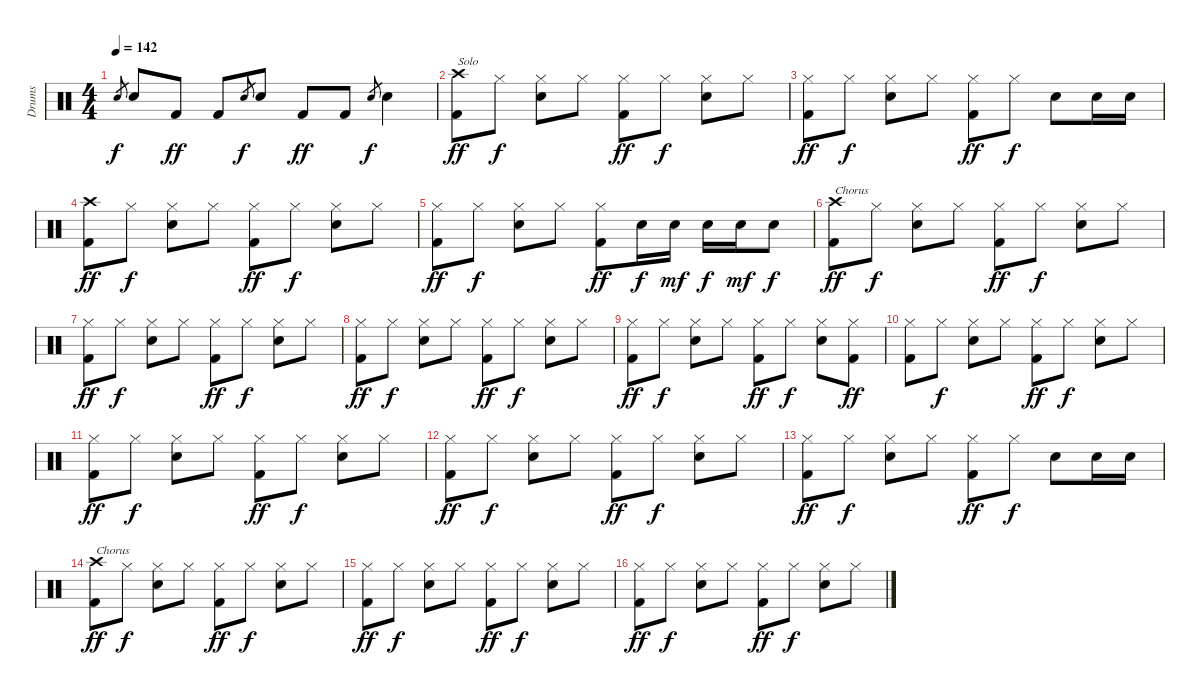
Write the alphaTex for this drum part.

\track ("Drums" "Drums") {instrument percussion}
\staff {score}
\articulation defaults
\ts (4 4)
\tempo 142
\clef neutral
\ks c "Snare (hit) 2".8{gr dy f} "Snare (hit) 2".8 "Kick (hit) 2".8{dy ff} "Kick (hit) 2".8 "Snare (hit) 2".8{gr dy f} "Snare (hit) 2".8 "Kick (hit) 2".8{dy ff} "Kick (hit) 2".8 "Snare (hit) 2".8{gr dy f} "Snare (hit) 2".4
|
("Crash high (hit)" "Kick (hit) 2").8{txt "Solo" dy ff} "Hi-Hat (closed)".8{dy f} ("Hi-Hat (closed)" "Snare (hit) 2").8 "Hi-Hat (closed)".8 ("Hi-Hat (closed)" "Kick (hit) 2").8{dy ff} "Hi-Hat (closed)".8{dy f} ("Hi-Hat (closed)" "Snare (hit) 2").8 "Hi-Hat (closed)".8 |
("Hi-Hat (closed)" "Kick (hit) 2").8{dy ff} "Hi-Hat (closed)".8{dy f} ("Hi-Hat (closed)" "Snare (hit) 2").8 "Hi-Hat (closed)".8 ("Hi-Hat (closed)" "Kick (hit) 2").8{dy ff} "Hi-Hat (closed)".8{dy f} "Snare (hit) 2".8 "Snare (hit) 2".16 "Snare (hit) 2".16 |
("Crash high (hit)" "Kick (hit) 2").8{dy ff} "Hi-Hat (closed)".8{dy f} ("Hi-Hat (closed)" "Snare (hit) 2").8 "Hi-Hat (closed)".8 ("Hi-Hat (closed)" "Kick (hit) 2").8{dy ff} "Hi-Hat (closed)".8{dy f} ("Hi-Hat (closed)" "Snare (hit) 2").8 "Hi-Hat (closed)".8 |
("Hi-Hat (closed)" "Kick (hit) 2").8{dy ff} "Hi-Hat (closed)".8{dy f} ("Hi-Hat (closed)" "Snare (hit) 2").8 "Hi-Hat (closed)".8 ("Hi-Hat (closed)" "Kick (hit) 2").8{dy ff} "Snare (hit) 2".16{dy f} "Snare (hit) 2".16{dy mf} "Snare (hit) 2".16{dy f} "Snare (hit) 2".16{dy mf} "Snare (hit) 2".8{dy f} |
("Crash high (hit)" "Kick (hit) 2").8{txt "Chorus" dy ff} "Hi-Hat (closed)".8{dy f} ("Hi-Hat (closed)" "Snare (hit) 2").8 "Hi-Hat (closed)".8 ("Hi-Hat (closed)" "Kick (hit) 2").8{dy ff} "Hi-Hat (closed)".8{dy f} ("Hi-Hat (closed)" "Snare (hit) 2").8 "Hi-Hat (closed)".8 |
("Hi-Hat (closed)" "Kick (hit) 2").8{dy ff} "Hi-Hat (closed)".8{dy f} ("Hi-Hat (closed)" "Snare (hit) 2").8 "Hi-Hat (closed)".8 ("Hi-Hat (closed)" "Kick (hit) 2").8{dy ff} "Hi-Hat (closed)".8{dy f} ("Hi-Hat (closed)" "Snare (hit) 2").8 "Hi-Hat (closed)".8 |
("Hi-Hat (closed)" "Kick (hit) 2").8{dy ff} "Hi-Hat (closed)".8{dy f} ("Hi-Hat (closed)" "Snare (hit) 2").8 "Hi-Hat (closed)".8 ("Hi-Hat (closed)" "Kick (hit) 2").8{dy ff} "Hi-Hat (closed)".8{dy f} ("Hi-Hat (closed)" "Snare (hit) 2").8 "Hi-Hat (closed)".8 |
("Hi-Hat (closed)" "Kick (hit) 2").8{dy ff} "Hi-Hat (closed)".8{dy f} ("Hi-Hat (closed)" "Snare (hit) 2").8 "Hi-Hat (closed)".8 ("Hi-Hat (closed)" "Kick (hit) 2").8{dy ff} "Hi-Hat (closed)".8{dy f} ("Hi-Hat (closed)" "Snare (hit) 2").8 ("Hi-Hat (closed)" "Kick (hit) 2").8{dy ff} |
("Hi-Hat (closed)" "Kick (hit) 2").8 "Hi-Hat (closed)".8{dy f} ("Hi-Hat (closed)" "Snare (hit) 2").8 "Hi-Hat (closed)".8 ("Hi-Hat (closed)" "Kick (hit) 2").8{dy ff} "Hi-Hat (closed)".8{dy f} ("Hi-Hat (closed)" "Snare (hit) 2").8 "Hi-Hat (closed)".8 |
("Hi-Hat (closed)" "Kick (hit) 2").8{dy ff} "Hi-Hat (closed)".8{dy f} ("Hi-Hat (closed)" "Snare (hit) 2").8 "Hi-Hat (closed)".8 ("Hi-Hat (closed)" "Kick (hit) 2").8{dy ff} "Hi-Hat (closed)".8{dy f} ("Hi-Hat (closed)" "Snare (hit) 2").8 "Hi-Hat (closed)".8 |
("Hi-Hat (closed)" "Kick (hit) 2").8{dy ff} "Hi-Hat (closed)".8{dy f} ("Hi-Hat (closed)" "Snare (hit) 2").8 "Hi-Hat (closed)".8 ("Hi-Hat (closed)" "Kick (hit) 2").8{dy ff} "Hi-Hat (closed)".8{dy f} ("Hi-Hat (closed)" "Snare (hit) 2").8 "Hi-Hat (closed)".8 |
("Hi-Hat (closed)" "Kick (hit) 2").8{dy ff} "Hi-Hat (closed)".8{dy f} ("Hi-Hat (closed)" "Snare (hit) 2").8 "Hi-Hat (closed)".8 ("Hi-Hat (closed)" "Kick (hit) 2").8{dy ff} "Hi-Hat (closed)".8{dy f} "Snare (hit) 2".8 "Snare (hit) 2".16 "Snare (hit) 2".16 |
("Crash high (hit)" "Kick (hit) 2").8{txt "Chorus" dy ff} "Hi-Hat (closed)".8{dy f} ("Hi-Hat (closed)" "Snare (hit) 2").8 "Hi-Hat (closed)".8 ("Hi-Hat (closed)" "Kick (hit) 2").8{dy ff} "Hi-Hat (closed)".8{dy f} ("Hi-Hat (closed)" "Snare (hit) 2").8 "Hi-Hat (closed)".8 |
("Hi-Hat (closed)" "Kick (hit) 2").8{dy ff} "Hi-Hat (closed)".8{dy f} ("Hi-Hat (closed)" "Snare (hit) 2").8 "Hi-Hat (closed)".8 ("Hi-Hat (closed)" "Kick (hit) 2").8{dy ff} "Hi-Hat (closed)".8{dy f} ("Hi-Hat (closed)" "Snare (hit) 2").8 "Hi-Hat (closed)".8 |
("Hi-Hat (closed)" "Kick (hit) 2").8{dy ff} "Hi-Hat (closed)".8{dy f} ("Hi-Hat (closed)" "Snare (hit) 2").8 "Hi-Hat (closed)".8 ("Hi-Hat (closed)" "Kick (hit) 2").8{dy ff} "Hi-Hat (closed)".8{dy f} ("Hi-Hat (closed)" "Snare (hit) 2").8 "Hi-Hat (closed)".8
